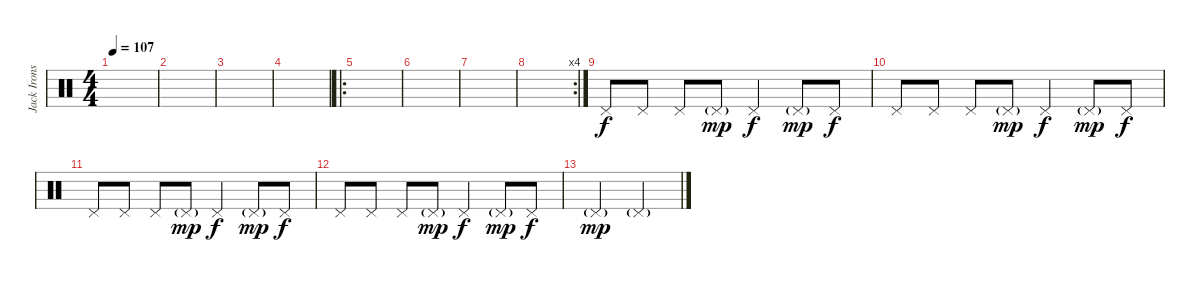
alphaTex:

\track ("Jack Irons" "Jack Irons") {instrument percussion}
\staff {score}
\articulation defaults
\ts (4 4)
\tempo 107
\clef neutral
\ks c
|
|
|
|
\ro
|
|
|
\rc 4
|
"Pedal Hi-Hat (hit)".8 "Pedal Hi-Hat (hit)".8 "Pedal Hi-Hat (hit)".8 "Pedal Hi-Hat (hit)"{g}.8{dy mp} "Pedal Hi-Hat (hit)".4{dy f} "Pedal Hi-Hat (hit)"{g}.8{dy mp} "Pedal Hi-Hat (hit)".8{dy f} |
"Pedal Hi-Hat (hit)".8 "Pedal Hi-Hat (hit)".8 "Pedal Hi-Hat (hit)".8 "Pedal Hi-Hat (hit)"{g}.8{dy mp} "Pedal Hi-Hat (hit)".4{dy f} "Pedal Hi-Hat (hit)"{g}.8{dy mp} "Pedal Hi-Hat (hit)".8{dy f} |
"Pedal Hi-Hat (hit)".8 "Pedal Hi-Hat (hit)".8 "Pedal Hi-Hat (hit)".8 "Pedal Hi-Hat (hit)"{g}.8{dy mp} "Pedal Hi-Hat (hit)".4{dy f} "Pedal Hi-Hat (hit)"{g}.8{dy mp} "Pedal Hi-Hat (hit)".8{dy f} |
"Pedal Hi-Hat (hit)".8 "Pedal Hi-Hat (hit)".8 "Pedal Hi-Hat (hit)".8 "Pedal Hi-Hat (hit)"{g}.8{dy mp} "Pedal Hi-Hat (hit)".4{dy f} "Pedal Hi-Hat (hit)"{g}.8{dy mp} "Pedal Hi-Hat (hit)".8{dy f} |
"Pedal Hi-Hat (hit)"{g}.2{dy mp} "Pedal Hi-Hat (hit)"{g}.2
